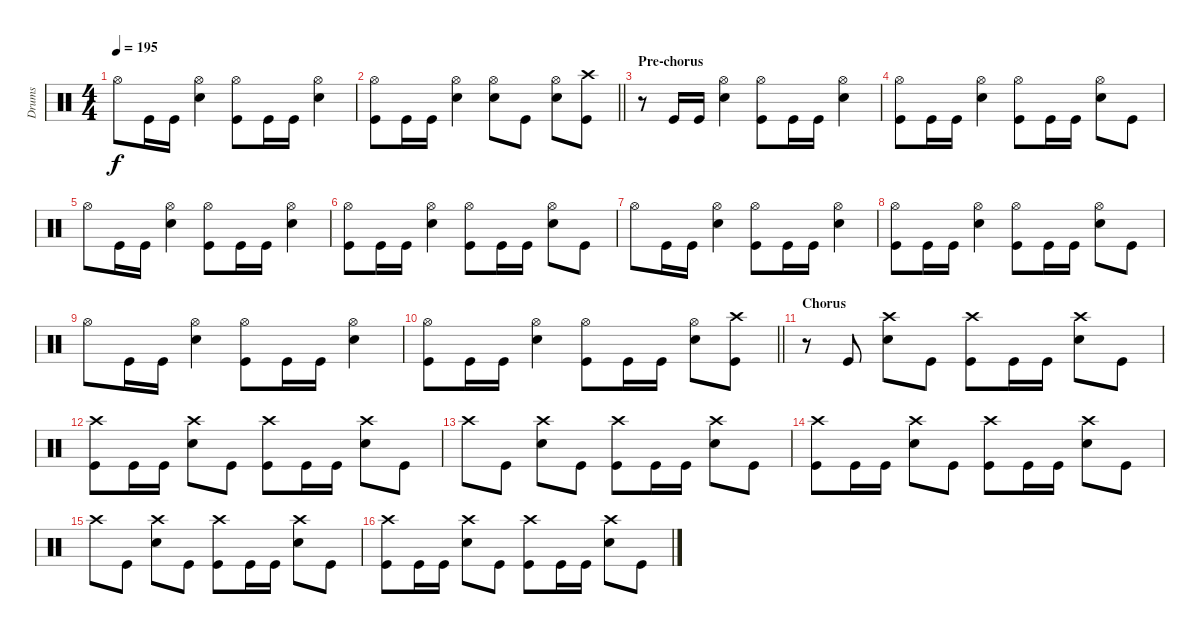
\track ("Drums" "Drums") {instrument percussion}
\staff {score}
\articulation defaults
\ts (4 4)
\tempo 195
\clef neutral
\ks c "Hi-Hat (open)".8{dy f} "Kick (hit)".16 "Kick (hit)".16
("Snare (hit) 2" "Hi-Hat (open)").4 ("Kick (hit)" "Hi-Hat (open)").8 "Kick (hit)".16 "Kick (hit)".16 ("Snare (hit) 2" "Hi-Hat (open)").4 |
\barLineRight lightlight
("Kick (hit)" "Hi-Hat (open)").8 "Kick (hit)".16 "Kick (hit)".16 ("Snare (hit) 2" "Hi-Hat (open)").4 ("Hi-Hat (open)" "Snare (hit) 2").8 "Kick (hit)".8 ("Snare (hit) 2" "Hi-Hat (open)").8 ("Kick (hit)" "Crash high (hit)").8 |
\section ("" "Pre-chorus")
r.8 "Kick (hit)".16 "Kick (hit)".16 ("Snare (hit) 2" "Hi-Hat (open)").4 ("Kick (hit)" "Hi-Hat (open)").8 "Kick (hit)".16 "Kick (hit)".16 ("Snare (hit) 2" "Hi-Hat (open)").4 |
("Kick (hit)" "Hi-Hat (open)").8 "Kick (hit)".16 "Kick (hit)".16 ("Snare (hit) 2" "Hi-Hat (open)").4 ("Kick (hit)" "Hi-Hat (open)").8 "Kick (hit)".16 "Kick (hit)".16 ("Snare (hit) 2" "Hi-Hat (open)").8 "Kick (hit)".8 |
"Hi-Hat (open)".8 "Kick (hit)".16 "Kick (hit)".16 ("Snare (hit) 2" "Hi-Hat (open)").4 ("Kick (hit)" "Hi-Hat (open)").8 "Kick (hit)".16 "Kick (hit)".16 ("Snare (hit) 2" "Hi-Hat (open)").4 |
("Kick (hit)" "Hi-Hat (open)").8 "Kick (hit)".16 "Kick (hit)".16 ("Snare (hit) 2" "Hi-Hat (open)").4 ("Kick (hit)" "Hi-Hat (open)").8 "Kick (hit)".16 "Kick (hit)".16 ("Snare (hit) 2" "Hi-Hat (open)").8 "Kick (hit)".8 |
"Hi-Hat (open)".8 "Kick (hit)".16 "Kick (hit)".16 ("Snare (hit) 2" "Hi-Hat (open)").4 ("Kick (hit)" "Hi-Hat (open)").8 "Kick (hit)".16 "Kick (hit)".16 ("Snare (hit) 2" "Hi-Hat (open)").4 |
("Kick (hit)" "Hi-Hat (open)").8 "Kick (hit)".16 "Kick (hit)".16 ("Snare (hit) 2" "Hi-Hat (open)").4 ("Kick (hit)" "Hi-Hat (open)").8 "Kick (hit)".16 "Kick (hit)".16 ("Snare (hit) 2" "Hi-Hat (open)").8 "Kick (hit)".8 |
"Hi-Hat (open)".8 "Kick (hit)".16 "Kick (hit)".16 ("Snare (hit) 2" "Hi-Hat (open)").4 ("Kick (hit)" "Hi-Hat (open)").8 "Kick (hit)".16 "Kick (hit)".16 ("Snare (hit) 2" "Hi-Hat (open)").4 |
\barLineRight lightlight
("Kick (hit)" "Hi-Hat (open)").8 "Kick (hit)".16 "Kick (hit)".16 ("Snare (hit) 2" "Hi-Hat (open)").4 ("Kick (hit)" "Hi-Hat (open)").8 "Kick (hit)".16 "Kick (hit)".16 ("Snare (hit) 2" "Hi-Hat (open)").8 ("Kick (hit)" "Crash high (hit)").8 |
\section ("" "Chorus")
r.8 "Kick (hit)".8 ("Snare (hit) 2" "Crash high (hit)").8 "Kick (hit)".8 ("Kick (hit)" "Crash high (hit)").8 "Kick (hit)".16 "Kick (hit)".16 ("Snare (hit) 2" "Crash high (hit)").8 "Kick (hit)".8 |
("Kick (hit)" "Crash high (hit)").8 "Kick (hit)".16 "Kick (hit)".16 ("Snare (hit) 2" "Crash high (hit)").8 "Kick (hit)".8 ("Kick (hit)" "Crash high (hit)").8 "Kick (hit)".16 "Kick (hit)".16 ("Snare (hit) 2" "Crash high (hit)").8 "Kick (hit)".8 |
"Crash high (hit)".8 "Kick (hit)".8 ("Snare (hit) 2" "Crash high (hit)").8 "Kick (hit)".8 ("Kick (hit)" "Crash high (hit)").8 "Kick (hit)".16 "Kick (hit)".16 ("Snare (hit) 2" "Crash high (hit)").8 "Kick (hit)".8 |
("Kick (hit)" "Crash high (hit)").8 "Kick (hit)".16 "Kick (hit)".16 ("Snare (hit) 2" "Crash high (hit)").8 "Kick (hit)".8 ("Kick (hit)" "Crash high (hit)").8 "Kick (hit)".16 "Kick (hit)".16 ("Snare (hit) 2" "Crash high (hit)").8 "Kick (hit)".8 |
"Crash high (hit)".8 "Kick (hit)".8 ("Snare (hit) 2" "Crash high (hit)").8 "Kick (hit)".8 ("Kick (hit)" "Crash high (hit)").8 "Kick (hit)".16 "Kick (hit)".16 ("Snare (hit) 2" "Crash high (hit)").8 "Kick (hit)".8 |
("Kick (hit)" "Crash high (hit)").8 "Kick (hit)".16 "Kick (hit)".16 ("Snare (hit) 2" "Crash high (hit)").8 "Kick (hit)".8 ("Kick (hit)" "Crash high (hit)").8 "Kick (hit)".16 "Kick (hit)".16 ("Snare (hit) 2" "Crash high (hit)").8 "Kick (hit)".8
